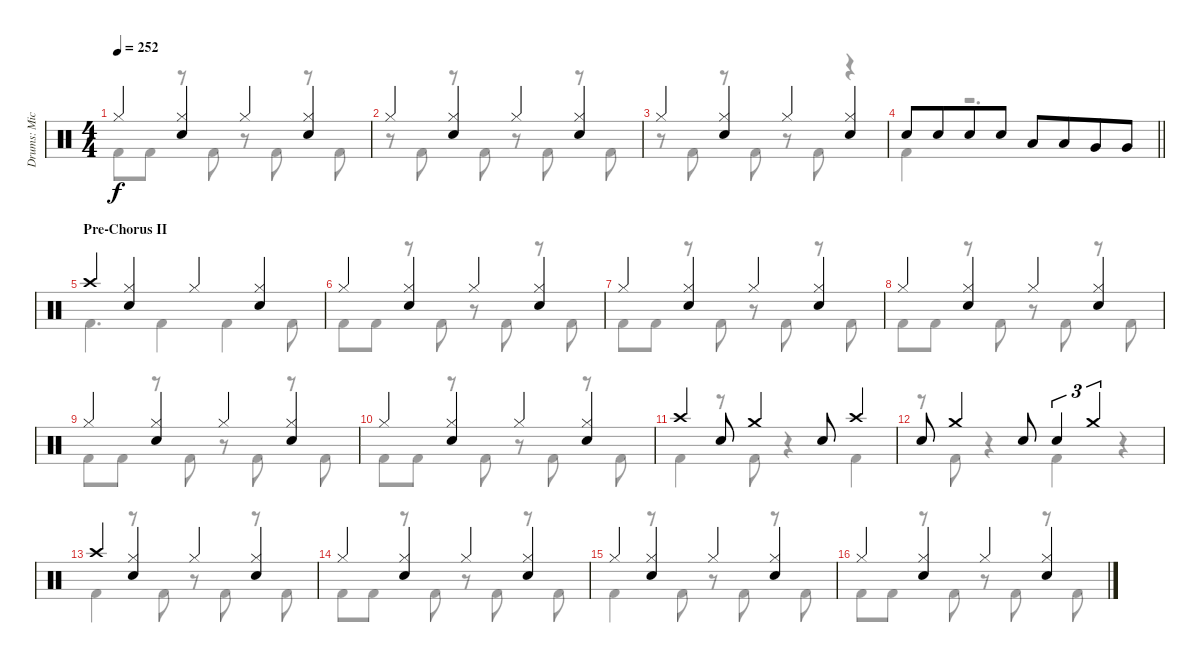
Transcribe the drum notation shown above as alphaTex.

\track ("Drums: Mick" "Drums: Mic") {instrument percussion}
\staff {score}
\articulation defaults
\voice
\ts (4 4)
\tempo 252
\clef neutral
\ks c "Hi-Hat (closed)".4{dy f}
("Hi-Hat (closed)" "Snare (hit) 2").4 "Hi-Hat (closed)".4 ("Hi-Hat (closed)" "Snare (hit) 2").4 |
"Hi-Hat (closed)".4 ("Hi-Hat (closed)" "Snare (hit) 2").4 "Hi-Hat (closed)".4 ("Hi-Hat (closed)" "Snare (hit) 2").4 |
"Hi-Hat (closed)".4 ("Hi-Hat (closed)" "Snare (hit) 2").4 "Hi-Hat (closed)".4 ("Hi-Hat (closed)" "Snare (hit) 2").4 |
\barLineRight lightlight "Snare (hit) 2".8 "Snare (hit) 2".8{beam merge} "Snare (hit) 2".8 "Snare (hit) 2".8 "Low Tom (hit)".8 "Low Tom (hit)".8{beam merge} "Very Low Tom (hit)".8 "Very Low Tom (hit)".8
|
\section ("" "Pre-Chorus II")
"Crash high (hit)".4 ("Hi-Hat (closed)" "Snare (hit) 2").4 "Hi-Hat (closed)".4 ("Hi-Hat (closed)" "Snare (hit) 2").4 |
"Hi-Hat (closed)".4 ("Hi-Hat (closed)" "Snare (hit) 2").4 "Hi-Hat (closed)".4 ("Hi-Hat (closed)" "Snare (hit) 2").4 |
"Hi-Hat (closed)".4 ("Hi-Hat (closed)" "Snare (hit) 2").4 "Hi-Hat (closed)".4 ("Hi-Hat (closed)" "Snare (hit) 2").4 |
"Hi-Hat (closed)".4 ("Hi-Hat (closed)" "Snare (hit) 2").4 "Hi-Hat (closed)".4 ("Hi-Hat (closed)" "Snare (hit) 2").4 |
"Hi-Hat (closed)".4 ("Hi-Hat (closed)" "Snare (hit) 2").4 "Hi-Hat (closed)".4 ("Hi-Hat (closed)" "Snare (hit) 2").4 |
"Hi-Hat (closed)".4 ("Hi-Hat (closed)" "Snare (hit) 2").4 "Hi-Hat (closed)".4 ("Hi-Hat (closed)" "Snare (hit) 2").4 |
"Crash high (hit)".4 "Snare (hit) 2".8 "Crash medium (hit)".4 "Snare (hit) 2".8 "Crash high (hit)".4 |
"Snare (hit) 2".8 "Crash medium (hit)".4 "Snare (hit) 2".8 "Snare (hit) 2".4{tu (3 2)} "Crash medium (hit)".2{tu (3 2)} |
"Crash high (hit)".4 ("Hi-Hat (closed)" "Snare (hit) 2").4 "Hi-Hat (closed)".4 ("Hi-Hat (closed)" "Snare (hit) 2").4 |
"Hi-Hat (closed)".4 ("Hi-Hat (closed)" "Snare (hit) 2").4 "Hi-Hat (closed)".4 ("Hi-Hat (closed)" "Snare (hit) 2").4 |
"Hi-Hat (closed)".4 ("Hi-Hat (closed)" "Snare (hit) 2").4 "Hi-Hat (closed)".4 ("Hi-Hat (closed)" "Snare (hit) 2").4 |
"Hi-Hat (closed)".4 ("Hi-Hat (closed)" "Snare (hit) 2").4 "Hi-Hat (closed)".4 ("Hi-Hat (closed)" "Snare (hit) 2").4
\voice
\clef neutral
\ottava regular
\simile none
\ks c "Kick (hit) 2".8{dy f} "Kick (hit) 2".8
r.8 "Kick (hit) 2".8 r.8 "Kick (hit) 2".8 r.8 "Kick (hit) 2".8 |
r.8 "Kick (hit) 2".8 r.8 "Kick (hit) 2".8 r.8 "Kick (hit) 2".8 r.8 "Kick (hit) 2".8 |
r.8 "Kick (hit) 2".8 r.8 "Kick (hit) 2".8 r.8 "Kick (hit) 2".8 r.4 |
\barLineRight lightlight "Kick (hit) 2".4
r.2{d} |
"Kick (hit) 2".4{d} "Kick (hit) 2".4 "Kick (hit) 2".4 "Kick (hit) 2".8 |
"Kick (hit) 2".8 "Kick (hit) 2".8 r.8 "Kick (hit) 2".8 r.8 "Kick (hit) 2".8 r.8 "Kick (hit) 2".8 |
"Kick (hit) 2".8 "Kick (hit) 2".8 r.8 "Kick (hit) 2".8 r.8 "Kick (hit) 2".8 r.8 "Kick (hit) 2".8 |
"Kick (hit) 2".8 "Kick (hit) 2".8 r.8 "Kick (hit) 2".8 r.8 "Kick (hit) 2".8 r.8 "Kick (hit) 2".8 |
"Kick (hit) 2".8 "Kick (hit) 2".8 r.8 "Kick (hit) 2".8 r.8 "Kick (hit) 2".8 r.8 "Kick (hit) 2".8 |
"Kick (hit) 2".8 "Kick (hit) 2".8 r.8 "Kick (hit) 2".8 r.8 "Kick (hit) 2".8 r.8 "Kick (hit) 2".8 |
"Kick (hit) 2".4 r.8 "Kick (hit) 2".8 r.4 "Kick (hit) 2".4 |
r.8 "Kick (hit) 2".8 r.4 "Kick (hit) 2".4 r.4 |
"Kick (hit) 2".4 r.8 "Kick (hit) 2".8 r.8 "Kick (hit) 2".8 r.8 "Kick (hit) 2".8 |
"Kick (hit) 2".8 "Kick (hit) 2".8 r.8 "Kick (hit) 2".8 r.8 "Kick (hit) 2".8 r.8 "Kick (hit) 2".8 |
"Kick (hit) 2".4 r.8 "Kick (hit) 2".8 r.8 "Kick (hit) 2".8 r.8 "Kick (hit) 2".8 |
"Kick (hit) 2".8 "Kick (hit) 2".8 r.8 "Kick (hit) 2".8 r.8 "Kick (hit) 2".8 r.8 "Kick (hit) 2".8
